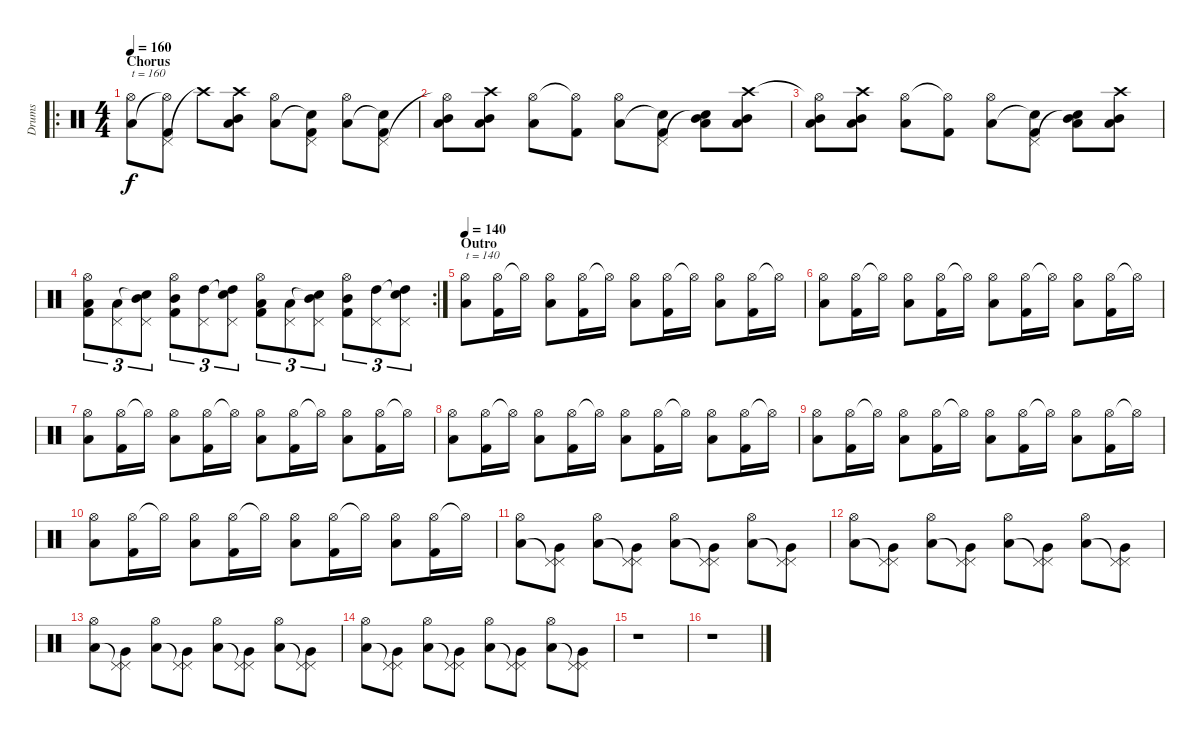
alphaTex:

\track ("Drums" "Drums") {instrument percussion}
\staff {score}
\articulation defaults
\ro
\ts (4 4)
\section ("" "Chorus")
\tempo 160
\clef neutral
\ks c
("Hi-Hat (open)" "Low Floor Tom (hit)").8{txt "t = 160" dy f} ("Pedal Hi-Hat (hit)" "Hi-Hat (open)"{t} "Kick (hit) 2").8 "Crash high (hit)"{t}.8 ("Crash high (hit)" "Mid Tom (hit)" "Low Tom (hit)").8 ("Hi-Hat (open)" "Low Floor Tom (hit)").8 ("Pedal Hi-Hat (hit)" "Snare (hit)"{t} "Kick (hit) 2").8 ("Hi-Hat (open)" "Low Floor Tom (hit)").8 ("Pedal Hi-Hat (hit)" "Snare (hit)"{t} "Kick (hit) 2").8 |
("Hi-Hat (open)"{t} "Mid Tom (hit)" "Low Tom (hit)").8 ("Crash high (hit)" "Mid Tom (hit)" "Low Tom (hit)").8 ("Hi-Hat (open)" "Low Floor Tom (hit)").8 ("Hi-Hat (open)"{t} "Kick (hit) 2").8 ("Hi-Hat (open)" "Low Floor Tom (hit)").8 ("Pedal Hi-Hat (hit)" "Snare (hit)"{t} "Kick (hit) 2").8 ("Snare (hit)"{t} "Mid Tom (hit)" "Low Tom (hit)").8 ("Crash high (hit)" "Mid Tom (hit)" "Low Tom (hit)").8 |
("Hi-Hat (open)"{t} "Mid Tom (hit)" "Low Tom (hit)").8 ("Crash high (hit)" "Mid Tom (hit)" "Low Tom (hit)").8 ("Hi-Hat (open)" "Low Floor Tom (hit)").8 ("Hi-Hat (open)"{t} "Kick (hit) 2").8 ("Hi-Hat (open)" "Low Floor Tom (hit)").8 ("Pedal Hi-Hat (hit)" "Snare (hit)"{t} "Kick (hit) 2").8 ("Snare (hit)"{t} "Mid Tom (hit)" "Low Tom (hit)").8 ("Crash high (hit)" "Mid Tom (hit)" "Low Tom (hit)").8 |
\rc 2
("Hi-Hat (open)" "Low Tom (hit)" "Kick (hit) 2").8{tu (3 2)} ("Pedal Hi-Hat (hit)" "Low Tom (hit)").8{tu (3 2)} ("Pedal Hi-Hat (hit)" "Snare (hit)"{t} "Mid Tom (hit)").8{tu (3 2)} ("Hi-Hat (open)" "Mid Tom (hit)" "Kick (hit) 2").8{tu (3 2)} ("Pedal Hi-Hat (hit)" "High Tom (hit)").8{tu (3 2)} ("Pedal Hi-Hat (hit)" "Snare (hit)"{t} "High Tom (hit)").8{tu (3 2)} ("Hi-Hat (open)" "Low Tom (hit)" "Kick (hit) 2").8{tu (3 2)} ("Pedal Hi-Hat (hit)" "Low Tom (hit)").8{tu (3 2)} ("Pedal Hi-Hat (hit)" "Snare (hit)"{t} "Mid Tom (hit)").8{tu (3 2)} ("Hi-Hat (open)" "Mid Tom (hit)" "Kick (hit) 2").8{tu (3 2)} ("Pedal Hi-Hat (hit)" "High Tom (hit)").8{tu (3 2)} ("Pedal Hi-Hat (hit)" "Snare (hit)"{t} "High Tom (hit)").8{tu (3 2)} |
\section ("" "Outro")
\tempo 140
("Hi-Hat (open)" "Low Floor Tom (hit)").8{txt "t = 140"} ("Hi-Hat (open)" "Kick (hit) 2").16 "Hi-Hat (open)"{t}.16 ("Hi-Hat (open)" "Low Floor Tom (hit)").8 ("Hi-Hat (open)" "Kick (hit) 2").16 "Hi-Hat (open)"{t}.16 ("Hi-Hat (open)" "Low Floor Tom (hit)").8 ("Hi-Hat (open)" "Kick (hit) 2").16 "Hi-Hat (open)"{t}.16 ("Hi-Hat (open)" "Low Floor Tom (hit)").8 ("Hi-Hat (open)" "Kick (hit) 2").16 "Hi-Hat (open)"{t}.16 |
("Hi-Hat (open)" "Low Floor Tom (hit)").8 ("Hi-Hat (open)" "Kick (hit) 2").16 "Hi-Hat (open)"{t}.16 ("Hi-Hat (open)" "Low Floor Tom (hit)").8 ("Hi-Hat (open)" "Kick (hit) 2").16 "Hi-Hat (open)"{t}.16 ("Hi-Hat (open)" "Low Floor Tom (hit)").8 ("Hi-Hat (open)" "Kick (hit) 2").16 "Hi-Hat (open)"{t}.16 ("Hi-Hat (open)" "Low Floor Tom (hit)").8 ("Hi-Hat (open)" "Kick (hit) 2").16 "Hi-Hat (open)"{t}.16 |
("Hi-Hat (open)" "Low Floor Tom (hit)").8 ("Hi-Hat (open)" "Kick (hit) 2").16 "Hi-Hat (open)"{t}.16 ("Hi-Hat (open)" "Low Floor Tom (hit)").8 ("Hi-Hat (open)" "Kick (hit) 2").16 "Hi-Hat (open)"{t}.16 ("Hi-Hat (open)" "Low Floor Tom (hit)").8 ("Hi-Hat (open)" "Kick (hit) 2").16 "Hi-Hat (open)"{t}.16 ("Hi-Hat (open)" "Low Floor Tom (hit)").8 ("Hi-Hat (open)" "Kick (hit) 2").16 "Hi-Hat (open)"{t}.16 |
("Hi-Hat (open)" "Low Floor Tom (hit)").8 ("Hi-Hat (open)" "Kick (hit) 2").16 "Hi-Hat (open)"{t}.16 ("Hi-Hat (open)" "Low Floor Tom (hit)").8 ("Hi-Hat (open)" "Kick (hit) 2").16 "Hi-Hat (open)"{t}.16 ("Hi-Hat (open)" "Low Floor Tom (hit)").8 ("Hi-Hat (open)" "Kick (hit) 2").16 "Hi-Hat (open)"{t}.16 ("Hi-Hat (open)" "Low Floor Tom (hit)").8 ("Hi-Hat (open)" "Kick (hit) 2").16 "Hi-Hat (open)"{t}.16 |
("Hi-Hat (open)" "Low Floor Tom (hit)").8 ("Hi-Hat (open)" "Kick (hit) 2").16 "Hi-Hat (open)"{t}.16 ("Hi-Hat (open)" "Low Floor Tom (hit)").8 ("Hi-Hat (open)" "Kick (hit) 2").16 "Hi-Hat (open)"{t}.16 ("Hi-Hat (open)" "Low Floor Tom (hit)").8 ("Hi-Hat (open)" "Kick (hit) 2").16 "Hi-Hat (open)"{t}.16 ("Hi-Hat (open)" "Low Floor Tom (hit)").8 ("Hi-Hat (open)" "Kick (hit) 2").16 "Hi-Hat (open)"{t}.16 |
("Hi-Hat (open)" "Low Floor Tom (hit)").8 ("Hi-Hat (open)" "Kick (hit) 2").16 "Hi-Hat (open)"{t}.16 ("Hi-Hat (open)" "Low Floor Tom (hit)").8 ("Hi-Hat (open)" "Kick (hit) 2").16 "Hi-Hat (open)"{t}.16 ("Hi-Hat (open)" "Low Floor Tom (hit)").8 ("Hi-Hat (open)" "Kick (hit) 2").16 "Hi-Hat (open)"{t}.16 ("Hi-Hat (open)" "Low Floor Tom (hit)").8 ("Hi-Hat (open)" "Kick (hit) 2").16 "Hi-Hat (open)"{t}.16 |
("Hi-Hat (open)" "Low Floor Tom (hit)").8 ("Pedal Hi-Hat (hit)" "Pedal Hi-Hat (hit)"{t} "Very Low Tom (hit)").8 ("Hi-Hat (open)" "Low Floor Tom (hit)").8 ("Pedal Hi-Hat (hit)" "Pedal Hi-Hat (hit)"{t} "Very Low Tom (hit)").8 ("Hi-Hat (open)" "Low Floor Tom (hit)").8 ("Pedal Hi-Hat (hit)" "Pedal Hi-Hat (hit)"{t} "Very Low Tom (hit)").8 ("Hi-Hat (open)" "Low Floor Tom (hit)").8 ("Pedal Hi-Hat (hit)" "Pedal Hi-Hat (hit)"{t} "Very Low Tom (hit)").8 |
("Hi-Hat (open)" "Low Floor Tom (hit)").8 ("Pedal Hi-Hat (hit)" "Pedal Hi-Hat (hit)"{t} "Very Low Tom (hit)").8 ("Hi-Hat (open)" "Low Floor Tom (hit)").8 ("Pedal Hi-Hat (hit)" "Pedal Hi-Hat (hit)"{t} "Very Low Tom (hit)").8 ("Hi-Hat (open)" "Low Floor Tom (hit)").8 ("Pedal Hi-Hat (hit)" "Pedal Hi-Hat (hit)"{t} "Very Low Tom (hit)").8 ("Hi-Hat (open)" "Low Floor Tom (hit)").8 ("Pedal Hi-Hat (hit)" "Pedal Hi-Hat (hit)"{t} "Very Low Tom (hit)").8 |
("Hi-Hat (open)" "Low Floor Tom (hit)").8 ("Pedal Hi-Hat (hit)" "Pedal Hi-Hat (hit)"{t} "Very Low Tom (hit)").8 ("Hi-Hat (open)" "Low Floor Tom (hit)").8 ("Pedal Hi-Hat (hit)" "Pedal Hi-Hat (hit)"{t} "Very Low Tom (hit)").8 ("Hi-Hat (open)" "Low Floor Tom (hit)").8 ("Pedal Hi-Hat (hit)" "Pedal Hi-Hat (hit)"{t} "Very Low Tom (hit)").8 ("Hi-Hat (open)" "Low Floor Tom (hit)").8 ("Pedal Hi-Hat (hit)" "Pedal Hi-Hat (hit)"{t} "Very Low Tom (hit)").8 |
("Hi-Hat (open)" "Low Floor Tom (hit)").8 ("Pedal Hi-Hat (hit)" "Pedal Hi-Hat (hit)"{t} "Very Low Tom (hit)").8 ("Hi-Hat (open)" "Low Floor Tom (hit)").8 ("Pedal Hi-Hat (hit)" "Pedal Hi-Hat (hit)"{t} "Very Low Tom (hit)").8 ("Hi-Hat (open)" "Low Floor Tom (hit)").8 ("Pedal Hi-Hat (hit)" "Pedal Hi-Hat (hit)"{t} "Very Low Tom (hit)").8 ("Hi-Hat (open)" "Low Floor Tom (hit)").8 ("Pedal Hi-Hat (hit)" "Pedal Hi-Hat (hit)"{t} "Very Low Tom (hit)").8 |
r.1 |
r.1
